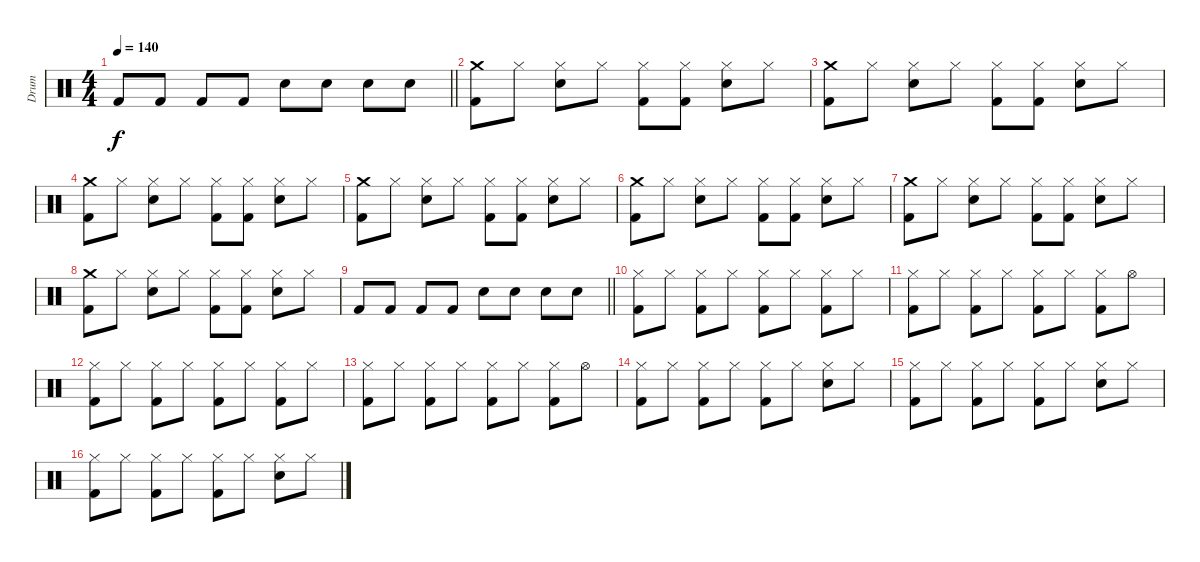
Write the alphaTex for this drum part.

\track ("Drum" "Drum") {instrument percussion}
\staff {score}
\articulation defaults
\ts (4 4)
\tempo 140
\clef neutral
\barLineRight lightlight
\ks c "Kick (hit) 2".8{dy f} "Kick (hit) 2".8 "Kick (hit) 2".8 "Kick (hit) 2".8 "Electric Snare (hit)".8 "Electric Snare (hit)".8 "Electric Snare (hit)".8 "Electric Snare (hit)".8
|
("Crash medium (hit)" "Kick (hit) 2").8 "Hi-Hat (closed)".8 ("Hi-Hat (closed)" "Electric Snare (hit)").8 "Hi-Hat (closed)".8 ("Hi-Hat (closed)" "Kick (hit) 2").8 ("Hi-Hat (closed)" "Kick (hit) 2").8 ("Hi-Hat (closed)" "Electric Snare (hit)").8 "Hi-Hat (closed)".8 |
("Crash medium (hit)" "Kick (hit) 2").8 "Hi-Hat (closed)".8 ("Hi-Hat (closed)" "Electric Snare (hit)").8 "Hi-Hat (closed)".8 ("Hi-Hat (closed)" "Kick (hit) 2").8 ("Hi-Hat (closed)" "Kick (hit) 2").8 ("Hi-Hat (closed)" "Electric Snare (hit)").8 "Hi-Hat (closed)".8 |
("Crash medium (hit)" "Kick (hit) 2").8 "Hi-Hat (closed)".8 ("Hi-Hat (closed)" "Electric Snare (hit)").8 "Hi-Hat (closed)".8 ("Hi-Hat (closed)" "Kick (hit) 2").8 ("Hi-Hat (closed)" "Kick (hit) 2").8 ("Hi-Hat (closed)" "Electric Snare (hit)").8 "Hi-Hat (closed)".8 |
("Crash medium (hit)" "Kick (hit) 2").8 "Hi-Hat (closed)".8 ("Hi-Hat (closed)" "Electric Snare (hit)").8 "Hi-Hat (closed)".8 ("Hi-Hat (closed)" "Kick (hit) 2").8 ("Hi-Hat (closed)" "Kick (hit) 2").8 ("Hi-Hat (closed)" "Electric Snare (hit)").8 "Hi-Hat (closed)".8 |
("Crash medium (hit)" "Kick (hit) 2").8 "Hi-Hat (closed)".8 ("Hi-Hat (closed)" "Electric Snare (hit)").8 "Hi-Hat (closed)".8 ("Hi-Hat (closed)" "Kick (hit) 2").8 ("Hi-Hat (closed)" "Kick (hit) 2").8 ("Hi-Hat (closed)" "Electric Snare (hit)").8 "Hi-Hat (closed)".8 |
("Crash medium (hit)" "Kick (hit) 2").8 "Hi-Hat (closed)".8 ("Hi-Hat (closed)" "Electric Snare (hit)").8 "Hi-Hat (closed)".8 ("Hi-Hat (closed)" "Kick (hit) 2").8 ("Hi-Hat (closed)" "Kick (hit) 2").8 ("Hi-Hat (closed)" "Electric Snare (hit)").8 "Hi-Hat (closed)".8 |
("Crash medium (hit)" "Kick (hit) 2").8 "Hi-Hat (closed)".8 ("Hi-Hat (closed)" "Electric Snare (hit)").8 "Hi-Hat (closed)".8 ("Hi-Hat (closed)" "Kick (hit) 2").8 ("Hi-Hat (closed)" "Kick (hit) 2").8 ("Hi-Hat (closed)" "Electric Snare (hit)").8 "Hi-Hat (closed)".8 |
\barLineRight lightlight "Kick (hit) 2".8 "Kick (hit) 2".8 "Kick (hit) 2".8 "Kick (hit) 2".8 "Electric Snare (hit)".8 "Electric Snare (hit)".8 "Electric Snare (hit)".8 "Electric Snare (hit)".8
|
("Hi-Hat (closed)" "Kick (hit) 2").8 "Hi-Hat (closed)".8 ("Hi-Hat (closed)" "Kick (hit) 2").8 "Hi-Hat (closed)".8 ("Hi-Hat (closed)" "Kick (hit) 2").8 "Hi-Hat (closed)".8 ("Hi-Hat (closed)" "Kick (hit) 2").8 "Hi-Hat (closed)".8 |
("Hi-Hat (closed)" "Kick (hit) 2").8 "Hi-Hat (closed)".8 ("Hi-Hat (closed)" "Kick (hit) 2").8 "Hi-Hat (closed)".8 ("Hi-Hat (closed)" "Kick (hit) 2").8 "Hi-Hat (closed)".8 ("Hi-Hat (closed)" "Kick (hit) 2").8 "Hi-Hat (open)".8 |
("Hi-Hat (closed)" "Kick (hit) 2").8 "Hi-Hat (closed)".8 ("Hi-Hat (closed)" "Kick (hit) 2").8 "Hi-Hat (closed)".8 ("Hi-Hat (closed)" "Kick (hit) 2").8 "Hi-Hat (closed)".8 ("Hi-Hat (closed)" "Kick (hit) 2").8 "Hi-Hat (closed)".8 |
("Hi-Hat (closed)" "Kick (hit) 2").8 "Hi-Hat (closed)".8 ("Hi-Hat (closed)" "Kick (hit) 2").8 "Hi-Hat (closed)".8 ("Hi-Hat (closed)" "Kick (hit) 2").8 "Hi-Hat (closed)".8 ("Hi-Hat (closed)" "Kick (hit) 2").8 "Hi-Hat (open)".8 |
("Hi-Hat (closed)" "Kick (hit) 2").8 "Hi-Hat (closed)".8 ("Hi-Hat (closed)" "Kick (hit) 2").8 "Hi-Hat (closed)".8 ("Hi-Hat (closed)" "Kick (hit) 2").8 "Hi-Hat (closed)".8 ("Hi-Hat (closed)" "Snare (hit) 2").8 "Hi-Hat (closed)".8 |
("Hi-Hat (closed)" "Kick (hit) 2").8 "Hi-Hat (closed)".8 ("Hi-Hat (closed)" "Kick (hit) 2").8 "Hi-Hat (closed)".8 ("Hi-Hat (closed)" "Kick (hit) 2").8 "Hi-Hat (closed)".8 ("Hi-Hat (closed)" "Snare (hit) 2").8 "Hi-Hat (closed)".8 |
("Hi-Hat (closed)" "Kick (hit) 2").8 "Hi-Hat (closed)".8 ("Hi-Hat (closed)" "Kick (hit) 2").8 "Hi-Hat (closed)".8 ("Hi-Hat (closed)" "Kick (hit) 2").8 "Hi-Hat (closed)".8 ("Hi-Hat (closed)" "Snare (hit) 2").8 "Hi-Hat (closed)".8
